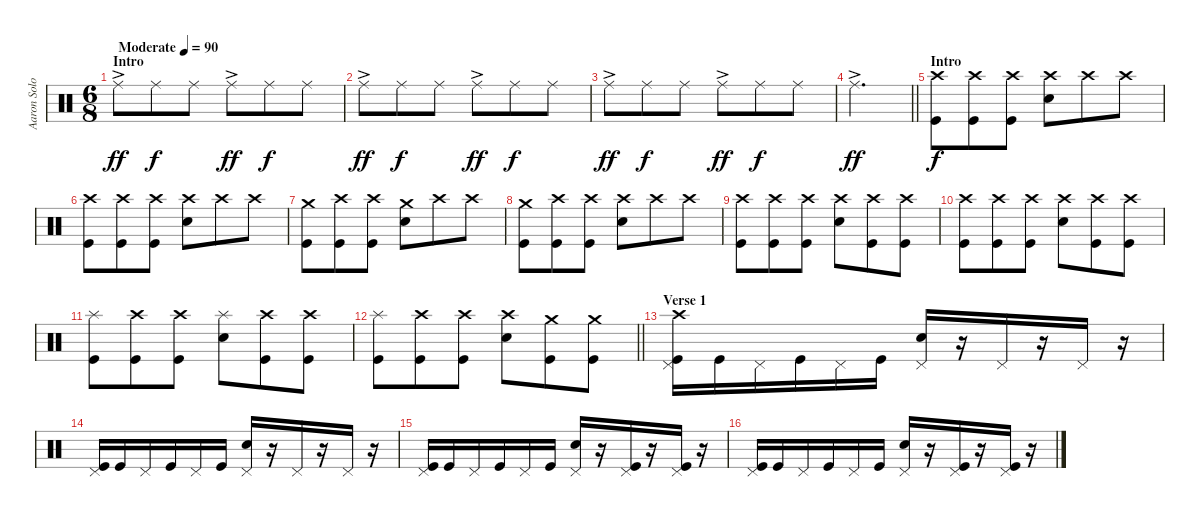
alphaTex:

\track ("Aaron Solowoniuk" "Aaron Solo") {instrument percussion}
\staff {score}
\articulation defaults
\ts (6 8)
\section ("" "Intro")
\tempo (90 "Moderate")
\clef neutral
\ks c "Ride (middle)"{ac}.8{dy ff} "Ride (middle)".8{dy f} "Ride (middle)".8 "Ride (middle)"{ac}.8{dy ff} "Ride (middle)".8{dy f} "Ride (middle)".8
|
"Ride (middle)"{ac}.8{dy ff} "Ride (middle)".8{dy f} "Ride (middle)".8 "Ride (middle)"{ac}.8{dy ff} "Ride (middle)".8{dy f} "Ride (middle)".8 |
"Ride (middle)"{ac}.8{dy ff} "Ride (middle)".8{dy f} "Ride (middle)".8 "Ride (middle)"{ac}.8{dy ff} "Ride (middle)".8{dy f} "Ride (middle)".8 |
\barLineRight lightlight "Ride (middle)"{ac}.2{d dy ff}
|
\section ("" "Intro")
("Crash high (hit)" "Kick (hit)").8{dy f} ("Crash high (hit)" "Kick (hit)").8 ("Crash high (hit)" "Kick (hit)").8 ("Crash high (hit)" "Electric Snare (hit)").8 "Crash high (hit)".8 "Crash high (hit)".8 |
("Crash high (hit)" "Kick (hit)").8 ("Crash high (hit)" "Kick (hit)").8 ("Crash high (hit)" "Kick (hit)").8 ("Crash high (hit)" "Electric Snare (hit)").8 "Crash high (hit)".8 "Crash high (hit)".8 |
("Crash medium (hit)" "Kick (hit)").8 ("Crash high (hit)" "Kick (hit)").8 ("Crash high (hit)" "Kick (hit)").8 ("Crash medium (hit)" "Electric Snare (hit)").8 "Crash high (hit)".8 "Crash high (hit)".8 |
("Crash medium (hit)" "Kick (hit)").8 ("Crash high (hit)" "Kick (hit)").8 ("Crash high (hit)" "Kick (hit)").8 ("Crash high (hit)" "Electric Snare (hit)").8 "Crash high (hit)".8 "Crash high (hit)".8 |
("Crash high (hit)" "Kick (hit)").8 ("Crash high (hit)" "Kick (hit)").8 ("Crash high (hit)" "Kick (hit)").8 ("Crash high (hit)" "Electric Snare (hit)").8 ("Crash high (hit)" "Kick (hit)").8 ("Crash high (hit)" "Kick (hit)").8 |
("Crash high (hit)" "Kick (hit)").8 ("Crash high (hit)" "Kick (hit)").8 ("Crash high (hit)" "Kick (hit)").8 ("Crash high (hit)" "Electric Snare (hit)").8 ("Crash high (hit)" "Kick (hit)").8 ("Crash high (hit)" "Kick (hit)").8 |
("Splash (hit)" "Kick (hit)").8 ("Crash high (hit)" "Kick (hit)").8 ("Crash high (hit)" "Kick (hit)").8 ("Splash (hit)" "Electric Snare (hit)").8 ("Crash high (hit)" "Kick (hit)").8 ("Crash high (hit)" "Kick (hit)").8 |
\barLineRight lightlight
("Splash (hit)" "Kick (hit)").8 ("Crash high (hit)" "Kick (hit)").8 ("Crash high (hit)" "Kick (hit)").8 ("Crash high (hit)" "Electric Snare (hit)").8 ("Crash medium (hit)" "Kick (hit)").8 ("Crash medium (hit)" "Kick (hit)").8 |
\section ("" "Verse 1")
("Crash high (hit)" "Pedal Hi-Hat (hit)" "Kick (hit)").16 "Kick (hit)".16 "Pedal Hi-Hat (hit)".16 "Kick (hit)".16 "Pedal Hi-Hat (hit)".16 "Kick (hit)".16 ("Pedal Hi-Hat (hit)" "Electric Snare (hit)").16 r.16 "Pedal Hi-Hat (hit)".16 r.16 "Pedal Hi-Hat (hit)".16 r.16 |
("Pedal Hi-Hat (hit)" "Kick (hit)").16 "Kick (hit)".16 "Pedal Hi-Hat (hit)".16 "Kick (hit)".16 "Pedal Hi-Hat (hit)".16 "Kick (hit)".16 ("Pedal Hi-Hat (hit)" "Electric Snare (hit)").16 r.16 "Pedal Hi-Hat (hit)".16 r.16 "Pedal Hi-Hat (hit)".16 r.16 |
("Pedal Hi-Hat (hit)" "Kick (hit)").16 "Kick (hit)".16 "Pedal Hi-Hat (hit)".16 "Kick (hit)".16 "Pedal Hi-Hat (hit)".16 "Kick (hit)".16 ("Pedal Hi-Hat (hit)" "Electric Snare (hit)").16 r.16 ("Pedal Hi-Hat (hit)" "Kick (hit)").16 r.16 ("Pedal Hi-Hat (hit)" "Kick (hit)").16 r.16 |
("Pedal Hi-Hat (hit)" "Kick (hit)").16 "Kick (hit)".16 "Pedal Hi-Hat (hit)".16 "Kick (hit)".16 "Pedal Hi-Hat (hit)".16 "Kick (hit)".16 ("Pedal Hi-Hat (hit)" "Electric Snare (hit)").16 r.16 ("Pedal Hi-Hat (hit)" "Kick (hit)").16 r.16 ("Pedal Hi-Hat (hit)" "Kick (hit)").16 r.16
